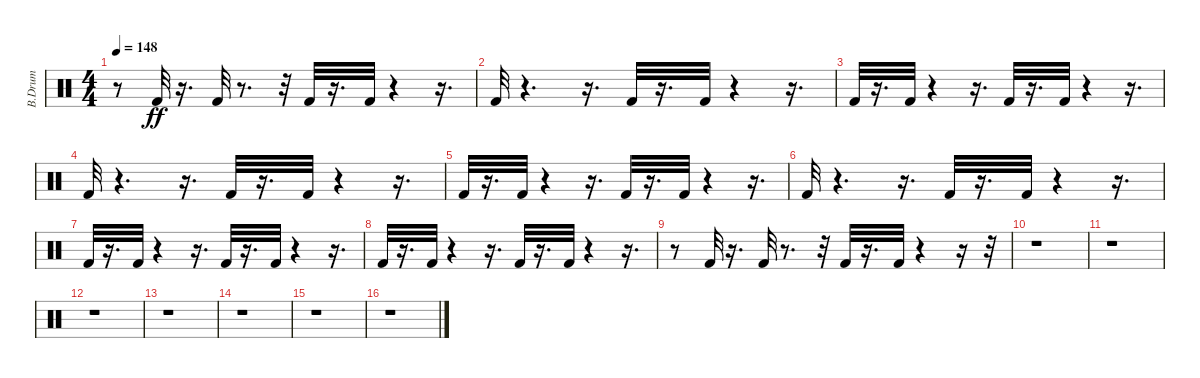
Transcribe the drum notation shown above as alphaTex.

\track ("B.Drum                              " "B.Drum    ") {instrument percussion}
\staff {score}
\articulation defaults
\ts (4 4)
\tempo 148
\clef neutral
\ks c
r.8{dy ff} "Kick (hit) 2".32 r.16{d} "Kick (hit) 2".32 r.8{d} r.32 "Kick (hit) 2".32 r.16{d} "Kick (hit) 2".32 r.4 r.16{d} |
"Kick (hit) 2".32 r.4{d} r.16{d} "Kick (hit) 2".32 r.16{d} "Kick (hit) 2".32 r.4 r.16{d} |
"Kick (hit) 2".32 r.16{d} "Kick (hit) 2".32 r.4 r.16{d} "Kick (hit) 2".32 r.16{d} "Kick (hit) 2".32 r.4 r.16{d} |
"Kick (hit) 2".32 r.4{d} r.16{d} "Kick (hit) 2".32 r.16{d} "Kick (hit) 2".32 r.4 r.16{d} |
"Kick (hit) 2".32 r.16{d} "Kick (hit) 2".32 r.4 r.16{d} "Kick (hit) 2".32 r.16{d} "Kick (hit) 2".32 r.4 r.16{d} |
"Kick (hit) 2".32 r.4{d} r.16{d} "Kick (hit) 2".32 r.16{d} "Kick (hit) 2".32 r.4 r.16{d} |
"Kick (hit) 2".32 r.16{d} "Kick (hit) 2".32 r.4 r.16{d} "Kick (hit) 2".32 r.16{d} "Kick (hit) 2".32 r.4 r.16{d} |
"Kick (hit) 2".32 r.16{d} "Kick (hit) 2".32 r.4 r.16{d} "Kick (hit) 2".32 r.16{d} "Kick (hit) 2".32 r.4 r.16{d} |
r.8 "Kick (hit) 2".32 r.16{d} "Kick (hit) 2".32 r.8{d} r.32 "Kick (hit) 2".32 r.16{d} "Kick (hit) 2".32 r.4 r.16 r.32 |
r.1 |
r.1 |
r.1 |
r.1 |
r.1 |
r.1 |
r.1
